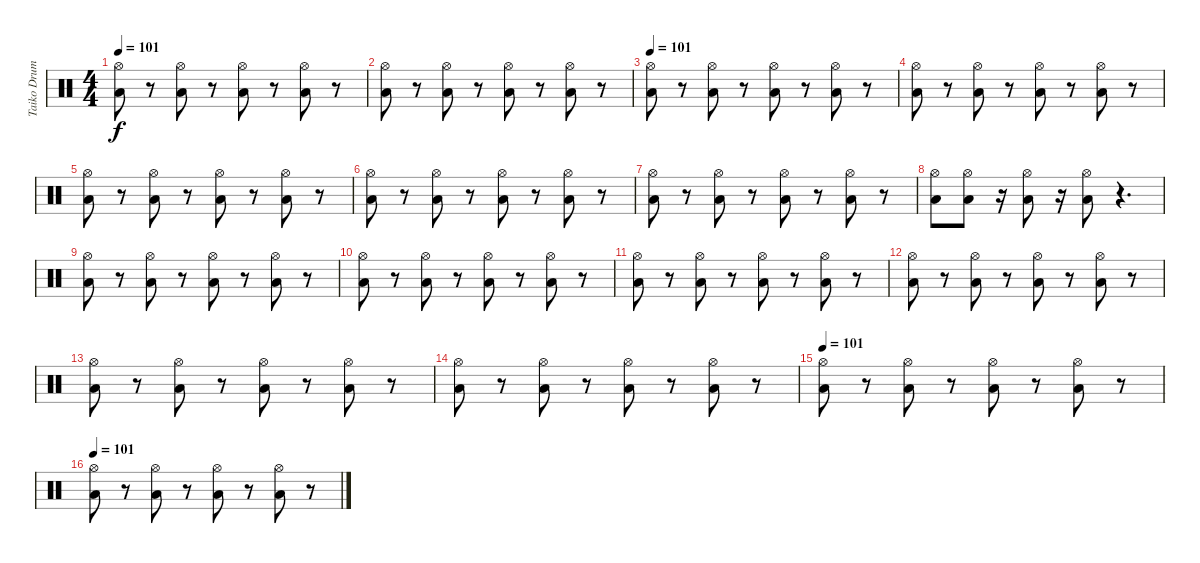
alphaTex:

\track ("Taiko Drum" "Taiko Drum") {instrument percussion}
\staff {score}
\articulation defaults
\ts (4 4)
\tempo 101
\clef neutral
\ks c
("Hi-Hat (open)" "Low Floor Tom (hit)").8{dy f} r.8 ("Low Floor Tom (hit)" "Hi-Hat (open)").8 r.8 ("Low Floor Tom (hit)" "Hi-Hat (open)").8 r.8 ("Low Floor Tom (hit)" "Hi-Hat (open)").8 r.8 |
("Hi-Hat (open)" "Low Floor Tom (hit)").8 r.8 ("Hi-Hat (open)" "Low Floor Tom (hit)").8 r.8 ("Hi-Hat (open)" "Low Floor Tom (hit)").8 r.8 ("Hi-Hat (open)" "Low Floor Tom (hit)").8 r.8 |
\tempo 101
("Hi-Hat (open)" "Low Floor Tom (hit)").8 r.8 ("Low Floor Tom (hit)" "Hi-Hat (open)").8 r.8 ("Low Floor Tom (hit)" "Hi-Hat (open)").8 r.8 ("Low Floor Tom (hit)" "Hi-Hat (open)").8 r.8 |
("Hi-Hat (open)" "Low Floor Tom (hit)").8 r.8 ("Hi-Hat (open)" "Low Floor Tom (hit)").8 r.8 ("Hi-Hat (open)" "Low Floor Tom (hit)").8 r.8 ("Hi-Hat (open)" "Low Floor Tom (hit)").8 r.8 |
("Hi-Hat (open)" "Low Floor Tom (hit)").8 r.8 ("Low Floor Tom (hit)" "Hi-Hat (open)").8 r.8 ("Low Floor Tom (hit)" "Hi-Hat (open)").8 r.8 ("Low Floor Tom (hit)" "Hi-Hat (open)").8 r.8 |
("Hi-Hat (open)" "Low Floor Tom (hit)").8 r.8 ("Hi-Hat (open)" "Low Floor Tom (hit)").8 r.8 ("Hi-Hat (open)" "Low Floor Tom (hit)").8 r.8 ("Hi-Hat (open)" "Low Floor Tom (hit)").8 r.8 |
("Hi-Hat (open)" "Low Floor Tom (hit)").8 r.8 ("Low Floor Tom (hit)" "Hi-Hat (open)").8 r.8 ("Low Floor Tom (hit)" "Hi-Hat (open)").8 r.8 ("Low Floor Tom (hit)" "Hi-Hat (open)").8 r.8 |
("Hi-Hat (open)" "Low Floor Tom (hit)").8 ("Hi-Hat (open)" "Low Floor Tom (hit)").8 r.16 ("Hi-Hat (open)" "Low Floor Tom (hit)").8 r.16 ("Hi-Hat (open)" "Low Floor Tom (hit)").8 r.4{d} |
("Hi-Hat (open)" "Low Floor Tom (hit)").8 r.8 ("Low Floor Tom (hit)" "Hi-Hat (open)").8 r.8 ("Low Floor Tom (hit)" "Hi-Hat (open)").8 r.8 ("Low Floor Tom (hit)" "Hi-Hat (open)").8 r.8 |
("Hi-Hat (open)" "Low Floor Tom (hit)").8 r.8 ("Hi-Hat (open)" "Low Floor Tom (hit)").8 r.8 ("Hi-Hat (open)" "Low Floor Tom (hit)").8 r.8 ("Hi-Hat (open)" "Low Floor Tom (hit)").8 r.8 |
("Hi-Hat (open)" "Low Floor Tom (hit)").8 r.8 ("Low Floor Tom (hit)" "Hi-Hat (open)").8 r.8 ("Low Floor Tom (hit)" "Hi-Hat (open)").8 r.8 ("Low Floor Tom (hit)" "Hi-Hat (open)").8 r.8 |
("Hi-Hat (open)" "Low Floor Tom (hit)").8 r.8 ("Hi-Hat (open)" "Low Floor Tom (hit)").8 r.8 ("Hi-Hat (open)" "Low Floor Tom (hit)").8 r.8 ("Hi-Hat (open)" "Low Floor Tom (hit)").8 r.8 |
("Hi-Hat (open)" "Low Floor Tom (hit)").8 r.8 ("Low Floor Tom (hit)" "Hi-Hat (open)").8 r.8 ("Low Floor Tom (hit)" "Hi-Hat (open)").8 r.8 ("Low Floor Tom (hit)" "Hi-Hat (open)").8 r.8 |
("Hi-Hat (open)" "Low Floor Tom (hit)").8 r.8 ("Hi-Hat (open)" "Low Floor Tom (hit)").8 r.8 ("Hi-Hat (open)" "Low Floor Tom (hit)").8 r.8 ("Hi-Hat (open)" "Low Floor Tom (hit)").8 r.8 |
\tempo 101
("Hi-Hat (open)" "Low Floor Tom (hit)").8 r.8 ("Low Floor Tom (hit)" "Hi-Hat (open)").8 r.8 ("Low Floor Tom (hit)" "Hi-Hat (open)").8 r.8 ("Low Floor Tom (hit)" "Hi-Hat (open)").8 r.8 |
\tempo 101
("Hi-Hat (open)" "Low Floor Tom (hit)").8 r.8 ("Hi-Hat (open)" "Low Floor Tom (hit)").8 r.8 ("Hi-Hat (open)" "Low Floor Tom (hit)").8 r.8 ("Hi-Hat (open)" "Low Floor Tom (hit)").8 r.8
